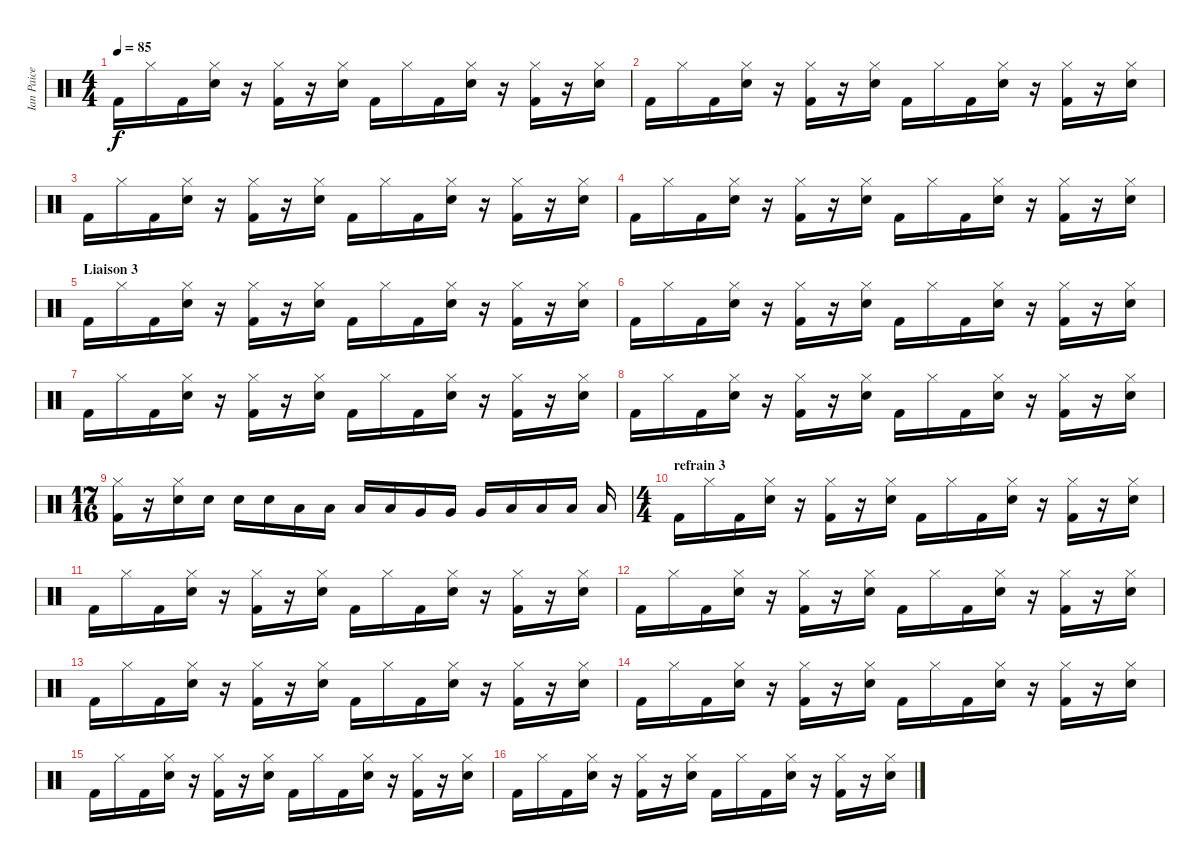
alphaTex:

\track ("Ian Paice" "Ian Paice") {instrument percussion}
\staff {score}
\articulation defaults
\ts (4 4)
\tempo 85
\clef neutral
\ks c "Kick (hit) 2".16{dy f} "Hi-Hat (closed)".16 "Kick (hit) 2".16
("Hi-Hat (closed)" "Snare (hit) 2").16 r.16 ("Hi-Hat (closed)" "Kick (hit) 2").16 r.16 ("Hi-Hat (closed)" "Snare (hit) 2").16 "Kick (hit) 2".16 "Hi-Hat (closed)".16 "Kick (hit) 2".16 ("Hi-Hat (closed)" "Snare (hit) 2").16 r.16 ("Hi-Hat (closed)" "Kick (hit) 2").16 r.16 ("Hi-Hat (closed)" "Snare (hit) 2").16 |
"Kick (hit) 2".16 "Hi-Hat (closed)".16 "Kick (hit) 2".16 ("Hi-Hat (closed)" "Snare (hit) 2").16 r.16 ("Hi-Hat (closed)" "Kick (hit) 2").16 r.16 ("Hi-Hat (closed)" "Snare (hit) 2").16 "Kick (hit) 2".16 "Hi-Hat (closed)".16 "Kick (hit) 2".16 ("Hi-Hat (closed)" "Snare (hit) 2").16 r.16 ("Hi-Hat (closed)" "Kick (hit) 2").16 r.16 ("Hi-Hat (closed)" "Snare (hit) 2").16 |
"Kick (hit) 2".16 "Hi-Hat (closed)".16 "Kick (hit) 2".16 ("Hi-Hat (closed)" "Snare (hit) 2").16 r.16 ("Hi-Hat (closed)" "Kick (hit) 2").16 r.16 ("Hi-Hat (closed)" "Snare (hit) 2").16 "Kick (hit) 2".16 "Hi-Hat (closed)".16 "Kick (hit) 2".16 ("Hi-Hat (closed)" "Snare (hit) 2").16 r.16 ("Hi-Hat (closed)" "Kick (hit) 2").16 r.16 ("Hi-Hat (closed)" "Snare (hit) 2").16 |
"Kick (hit) 2".16 "Hi-Hat (closed)".16 "Kick (hit) 2".16 ("Hi-Hat (closed)" "Snare (hit) 2").16 r.16 ("Hi-Hat (closed)" "Kick (hit) 2").16 r.16 ("Hi-Hat (closed)" "Snare (hit) 2").16 "Kick (hit) 2".16 "Hi-Hat (closed)".16 "Kick (hit) 2".16 ("Hi-Hat (closed)" "Snare (hit) 2").16 r.16 ("Hi-Hat (closed)" "Kick (hit) 2").16 r.16 ("Hi-Hat (closed)" "Snare (hit) 2").16 |
\section ("" "Liaison 3")
"Kick (hit) 2".16 "Hi-Hat (closed)".16 "Kick (hit) 2".16 ("Hi-Hat (closed)" "Snare (hit) 2").16 r.16 ("Hi-Hat (closed)" "Kick (hit) 2").16 r.16 ("Hi-Hat (closed)" "Snare (hit) 2").16 "Kick (hit) 2".16 "Hi-Hat (closed)".16 "Kick (hit) 2".16 ("Hi-Hat (closed)" "Snare (hit) 2").16 r.16 ("Hi-Hat (closed)" "Kick (hit) 2").16 r.16 ("Hi-Hat (closed)" "Snare (hit) 2").16 |
"Kick (hit) 2".16 "Hi-Hat (closed)".16 "Kick (hit) 2".16 ("Hi-Hat (closed)" "Snare (hit) 2").16 r.16 ("Hi-Hat (closed)" "Kick (hit) 2").16 r.16 ("Hi-Hat (closed)" "Snare (hit) 2").16 "Kick (hit) 2".16 "Hi-Hat (closed)".16 "Kick (hit) 2".16 ("Hi-Hat (closed)" "Snare (hit) 2").16 r.16 ("Hi-Hat (closed)" "Kick (hit) 2").16 r.16 ("Hi-Hat (closed)" "Snare (hit) 2").16 |
"Kick (hit) 2".16 "Hi-Hat (closed)".16 "Kick (hit) 2".16 ("Hi-Hat (closed)" "Snare (hit) 2").16 r.16 ("Hi-Hat (closed)" "Kick (hit) 2").16 r.16 ("Hi-Hat (closed)" "Snare (hit) 2").16 "Kick (hit) 2".16 "Hi-Hat (closed)".16 "Kick (hit) 2".16 ("Hi-Hat (closed)" "Snare (hit) 2").16 r.16 ("Hi-Hat (closed)" "Kick (hit) 2").16 r.16 ("Hi-Hat (closed)" "Snare (hit) 2").16 |
"Kick (hit) 2".16 "Hi-Hat (closed)".16 "Kick (hit) 2".16 ("Hi-Hat (closed)" "Snare (hit) 2").16 r.16 ("Hi-Hat (closed)" "Kick (hit) 2").16 r.16 ("Hi-Hat (closed)" "Snare (hit) 2").16 "Kick (hit) 2".16 "Hi-Hat (closed)".16 "Kick (hit) 2".16 ("Hi-Hat (closed)" "Snare (hit) 2").16 r.16 ("Hi-Hat (closed)" "Kick (hit) 2").16 r.16 ("Hi-Hat (closed)" "Snare (hit) 2").16 |
\ts (17 16)
("Hi-Hat (closed)" "Kick (hit) 2").16 r.16 ("Hi-Hat (closed)" "Snare (hit) 2").16 "Snare (hit) 2".16 "Snare (hit) 2".16 "Snare (hit) 2".16 "Low Tom (hit)".16 "Low Tom (hit)".16 "Low Tom (hit)".16 "Low Tom (hit)".16 "Very Low Tom (hit)".16 "Very Low Tom (hit)".16 "Very Low Tom (hit)".16 "Low Floor Tom (hit)".16 "Low Floor Tom (hit)".16 "Low Floor Tom (hit)".16 "Low Floor Tom (hit)".16 |
\ts (4 4)
\section ("" "refrain 3")
"Kick (hit) 2".16 "Hi-Hat (closed)".16 "Kick (hit) 2".16 ("Hi-Hat (closed)" "Snare (hit) 2").16 r.16 ("Hi-Hat (closed)" "Kick (hit) 2").16 r.16 ("Hi-Hat (closed)" "Snare (hit) 2").16 "Kick (hit) 2".16 "Hi-Hat (closed)".16 "Kick (hit) 2".16 ("Hi-Hat (closed)" "Snare (hit) 2").16 r.16 ("Hi-Hat (closed)" "Kick (hit) 2").16 r.16 ("Hi-Hat (closed)" "Snare (hit) 2").16 |
"Kick (hit) 2".16 "Hi-Hat (closed)".16 "Kick (hit) 2".16 ("Hi-Hat (closed)" "Snare (hit) 2").16 r.16 ("Hi-Hat (closed)" "Kick (hit) 2").16 r.16 ("Hi-Hat (closed)" "Snare (hit) 2").16 "Kick (hit) 2".16 "Hi-Hat (closed)".16 "Kick (hit) 2".16 ("Hi-Hat (closed)" "Snare (hit) 2").16 r.16 ("Hi-Hat (closed)" "Kick (hit) 2").16 r.16 ("Hi-Hat (closed)" "Snare (hit) 2").16 |
"Kick (hit) 2".16 "Hi-Hat (closed)".16 "Kick (hit) 2".16 ("Hi-Hat (closed)" "Snare (hit) 2").16 r.16 ("Hi-Hat (closed)" "Kick (hit) 2").16 r.16 ("Hi-Hat (closed)" "Snare (hit) 2").16 "Kick (hit) 2".16 "Hi-Hat (closed)".16 "Kick (hit) 2".16 ("Hi-Hat (closed)" "Snare (hit) 2").16 r.16 ("Hi-Hat (closed)" "Kick (hit) 2").16 r.16 ("Hi-Hat (closed)" "Snare (hit) 2").16 |
"Kick (hit) 2".16 "Hi-Hat (closed)".16 "Kick (hit) 2".16 ("Hi-Hat (closed)" "Snare (hit) 2").16 r.16 ("Hi-Hat (closed)" "Kick (hit) 2").16 r.16 ("Hi-Hat (closed)" "Snare (hit) 2").16 "Kick (hit) 2".16 "Hi-Hat (closed)".16 "Kick (hit) 2".16 ("Hi-Hat (closed)" "Snare (hit) 2").16 r.16 ("Hi-Hat (closed)" "Kick (hit) 2").16 r.16 ("Hi-Hat (closed)" "Snare (hit) 2").16 |
"Kick (hit) 2".16 "Hi-Hat (closed)".16 "Kick (hit) 2".16 ("Hi-Hat (closed)" "Snare (hit) 2").16 r.16 ("Hi-Hat (closed)" "Kick (hit) 2").16 r.16 ("Hi-Hat (closed)" "Snare (hit) 2").16 "Kick (hit) 2".16 "Hi-Hat (closed)".16 "Kick (hit) 2".16 ("Hi-Hat (closed)" "Snare (hit) 2").16 r.16 ("Hi-Hat (closed)" "Kick (hit) 2").16 r.16 ("Hi-Hat (closed)" "Snare (hit) 2").16 |
"Kick (hit) 2".16 "Hi-Hat (closed)".16 "Kick (hit) 2".16 ("Hi-Hat (closed)" "Snare (hit) 2").16 r.16 ("Hi-Hat (closed)" "Kick (hit) 2").16 r.16 ("Hi-Hat (closed)" "Snare (hit) 2").16 "Kick (hit) 2".16 "Hi-Hat (closed)".16 "Kick (hit) 2".16 ("Hi-Hat (closed)" "Snare (hit) 2").16 r.16 ("Hi-Hat (closed)" "Kick (hit) 2").16 r.16 ("Hi-Hat (closed)" "Snare (hit) 2").16 |
"Kick (hit) 2".16 "Hi-Hat (closed)".16 "Kick (hit) 2".16 ("Hi-Hat (closed)" "Snare (hit) 2").16 r.16 ("Hi-Hat (closed)" "Kick (hit) 2").16 r.16 ("Hi-Hat (closed)" "Snare (hit) 2").16 "Kick (hit) 2".16 "Hi-Hat (closed)".16 "Kick (hit) 2".16 ("Hi-Hat (closed)" "Snare (hit) 2").16 r.16 ("Hi-Hat (closed)" "Kick (hit) 2").16 r.16 ("Hi-Hat (closed)" "Snare (hit) 2").16
